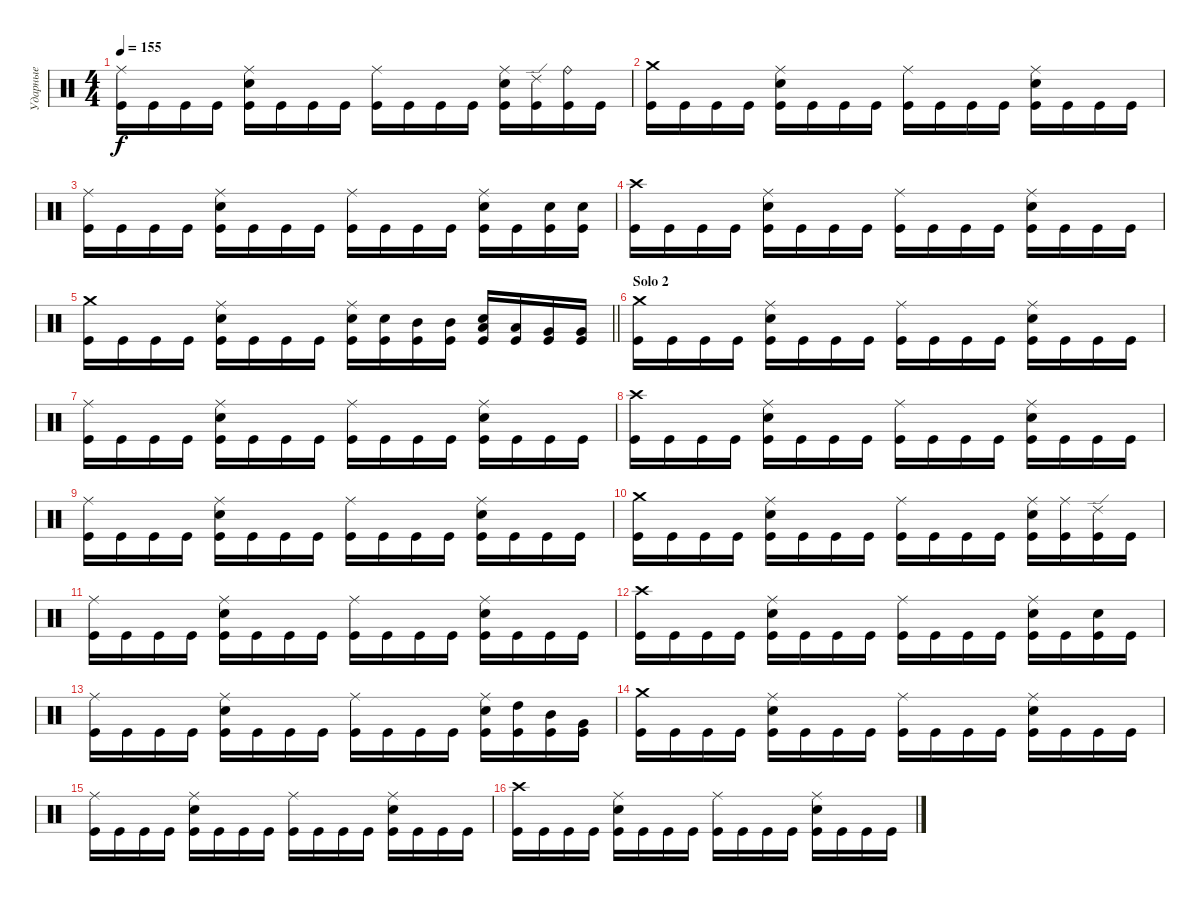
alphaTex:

\track ("Ударные" "Ударные") {instrument percussion}
\staff {score}
\articulation defaults
\ts (4 4)
\tempo 155
\clef neutral
\ks c
("Ride (middle)" "Kick (hit)").16{dy f} "Kick (hit)".16 "Kick (hit)".16 "Kick (hit)".16 ("Snare (hit) 2" "Ride (middle)" "Kick (hit)").16 "Kick (hit)".16 "Kick (hit)".16 "Kick (hit)".16 ("Ride (middle)" "Kick (hit)").16 "Kick (hit)".16 "Kick (hit)".16 "Kick (hit)".16 ("Snare (hit) 2" "Ride (middle)" "Kick (hit)").16 ("Ride (edge) 2" "Kick (hit)").16 ("Ride (bell)" "Kick (hit)").16 "Kick (hit)".16 |
("Crash medium (hit)" "Kick (hit)").16 "Kick (hit)".16 "Kick (hit)".16 "Kick (hit)".16 ("Snare (hit) 2" "Ride (middle)" "Kick (hit)").16 "Kick (hit)".16 "Kick (hit)".16 "Kick (hit)".16 ("Ride (middle)" "Kick (hit)").16 "Kick (hit)".16 "Kick (hit)".16 "Kick (hit)".16 ("Snare (hit) 2" "Ride (middle)" "Kick (hit)").16 "Kick (hit)".16 "Kick (hit)".16 "Kick (hit)".16 |
("Ride (middle)" "Kick (hit)").16 "Kick (hit)".16 "Kick (hit)".16 "Kick (hit)".16 ("Snare (hit) 2" "Ride (middle)" "Kick (hit)").16 "Kick (hit)".16 "Kick (hit)".16 "Kick (hit)".16 ("Ride (middle)" "Kick (hit)").16 "Kick (hit)".16 "Kick (hit)".16 "Kick (hit)".16 ("Snare (hit) 2" "Ride (middle)" "Kick (hit)").16 "Kick (hit)".16 ("Snare (hit) 2" "Kick (hit)").16 ("Snare (hit) 2" "Kick (hit)").16 |
("Crash high (hit)" "Kick (hit)").16 "Kick (hit)".16 "Kick (hit)".16 "Kick (hit)".16 ("Snare (hit) 2" "Ride (middle)" "Kick (hit)").16 "Kick (hit)".16 "Kick (hit)".16 "Kick (hit)".16 ("Ride (middle)" "Kick (hit)").16 "Kick (hit)".16 "Kick (hit)".16 "Kick (hit)".16 ("Snare (hit) 2" "Ride (middle)" "Kick (hit)").16 "Kick (hit)".16 "Kick (hit)".16 "Kick (hit)".16 |
\barLineRight lightlight
("Crash medium (hit)" "Kick (hit)").16 "Kick (hit)".16 "Kick (hit)".16 "Kick (hit)".16 ("Snare (hit) 2" "Ride (middle)" "Kick (hit)").16 "Kick (hit)".16 "Kick (hit)".16 "Kick (hit)".16 ("Ride (middle)" "Snare (hit) 2" "Kick (hit)").16 ("Snare (hit) 2" "Kick (hit)").16 ("Mid Tom (hit)" "Kick (hit)").16 ("Mid Tom (hit)" "Kick (hit)").16 ("Snare (hit) 2" "Low Tom (hit)" "Kick (hit)").16 ("Low Tom (hit)" "Kick (hit)").16 ("Very Low Tom (hit)" "Kick (hit)").16 ("Very Low Tom (hit)" "Kick (hit)").16 |
\section ("" "Solo 2")
("Crash medium (hit)" "Kick (hit)").16 "Kick (hit)".16 "Kick (hit)".16 "Kick (hit)".16 ("Snare (hit) 2" "Ride (middle)" "Kick (hit)").16 "Kick (hit)".16 "Kick (hit)".16 "Kick (hit)".16 ("Ride (middle)" "Kick (hit)").16 "Kick (hit)".16 "Kick (hit)".16 "Kick (hit)".16 ("Snare (hit) 2" "Ride (middle)" "Kick (hit)").16 "Kick (hit)".16 "Kick (hit)".16 "Kick (hit)".16 |
("Ride (middle)" "Kick (hit)").16 "Kick (hit)".16 "Kick (hit)".16 "Kick (hit)".16 ("Snare (hit) 2" "Ride (middle)" "Kick (hit)").16 "Kick (hit)".16 "Kick (hit)".16 "Kick (hit)".16 ("Ride (middle)" "Kick (hit)").16 "Kick (hit)".16 "Kick (hit)".16 "Kick (hit)".16 ("Snare (hit) 2" "Ride (middle)" "Kick (hit)").16 "Kick (hit)".16 "Kick (hit)".16 "Kick (hit)".16 |
("Crash high (hit)" "Kick (hit)").16 "Kick (hit)".16 "Kick (hit)".16 "Kick (hit)".16 ("Snare (hit) 2" "Ride (middle)" "Kick (hit)").16 "Kick (hit)".16 "Kick (hit)".16 "Kick (hit)".16 ("Ride (middle)" "Kick (hit)").16 "Kick (hit)".16 "Kick (hit)".16 "Kick (hit)".16 ("Snare (hit) 2" "Ride (middle)" "Kick (hit)").16 "Kick (hit)".16 "Kick (hit)".16 "Kick (hit)".16 |
("Ride (middle)" "Kick (hit)").16 "Kick (hit)".16 "Kick (hit)".16 "Kick (hit)".16 ("Snare (hit) 2" "Ride (middle)" "Kick (hit)").16 "Kick (hit)".16 "Kick (hit)".16 "Kick (hit)".16 ("Ride (middle)" "Kick (hit)").16 "Kick (hit)".16 "Kick (hit)".16 "Kick (hit)".16 ("Snare (hit) 2" "Ride (middle)" "Kick (hit)").16 "Kick (hit)".16 "Kick (hit)".16 "Kick (hit)".16 |
("Crash medium (hit)" "Kick (hit)").16 "Kick (hit)".16 "Kick (hit)".16 "Kick (hit)".16 ("Snare (hit) 2" "Ride (middle)" "Kick (hit)").16 "Kick (hit)".16 "Kick (hit)".16 "Kick (hit)".16 ("Ride (middle)" "Kick (hit)").16 "Kick (hit)".16 "Kick (hit)".16 "Kick (hit)".16 ("Snare (hit) 2" "Ride (middle)" "Kick (hit)").16 ("Ride (middle)" "Kick (hit)").16 ("Ride (edge) 2" "Kick (hit)").16 "Kick (hit)".16 |
("Ride (middle)" "Kick (hit)").16 "Kick (hit)".16 "Kick (hit)".16 "Kick (hit)".16 ("Snare (hit) 2" "Ride (middle)" "Kick (hit)").16 "Kick (hit)".16 "Kick (hit)".16 "Kick (hit)".16 ("Ride (middle)" "Kick (hit)").16 "Kick (hit)".16 "Kick (hit)".16 "Kick (hit)".16 ("Snare (hit) 2" "Ride (middle)" "Kick (hit)").16 "Kick (hit)".16 "Kick (hit)".16 "Kick (hit)".16 |
("Crash high (hit)" "Kick (hit)").16 "Kick (hit)".16 "Kick (hit)".16 "Kick (hit)".16 ("Snare (hit) 2" "Ride (middle)" "Kick (hit)").16 "Kick (hit)".16 "Kick (hit)".16 "Kick (hit)".16 ("Ride (middle)" "Kick (hit)").16 "Kick (hit)".16 "Kick (hit)".16 "Kick (hit)".16 ("Snare (hit) 2" "Ride (middle)" "Kick (hit)").16 "Kick (hit)".16 ("Snare (hit) 2" "Kick (hit)").16 "Kick (hit)".16 |
("Ride (middle)" "Kick (hit)").16 "Kick (hit)".16 "Kick (hit)".16 "Kick (hit)".16 ("Snare (hit) 2" "Ride (middle)" "Kick (hit)").16 "Kick (hit)".16 "Kick (hit)".16 "Kick (hit)".16 ("Ride (middle)" "Kick (hit)").16 "Kick (hit)".16 "Kick (hit)".16 "Kick (hit)".16 ("Snare (hit) 2" "Ride (middle)" "Kick (hit)").16 ("High Tom (hit)" "Kick (hit)").16 ("Mid Tom (hit)" "Kick (hit)").16 ("Very Low Tom (hit)" "Kick (hit)").16 |
("Crash medium (hit)" "Kick (hit)").16 "Kick (hit)".16 "Kick (hit)".16 "Kick (hit)".16 ("Snare (hit) 2" "Ride (middle)" "Kick (hit)").16 "Kick (hit)".16 "Kick (hit)".16 "Kick (hit)".16 ("Ride (middle)" "Kick (hit)").16 "Kick (hit)".16 "Kick (hit)".16 "Kick (hit)".16 ("Snare (hit) 2" "Ride (middle)" "Kick (hit)").16 "Kick (hit)".16 "Kick (hit)".16 "Kick (hit)".16 |
("Ride (middle)" "Kick (hit)").16 "Kick (hit)".16 "Kick (hit)".16 "Kick (hit)".16 ("Snare (hit) 2" "Ride (middle)" "Kick (hit)").16 "Kick (hit)".16 "Kick (hit)".16 "Kick (hit)".16 ("Ride (middle)" "Kick (hit)").16 "Kick (hit)".16 "Kick (hit)".16 "Kick (hit)".16 ("Snare (hit) 2" "Ride (middle)" "Kick (hit)").16 "Kick (hit)".16 "Kick (hit)".16 "Kick (hit)".16 |
("Crash high (hit)" "Kick (hit)").16 "Kick (hit)".16 "Kick (hit)".16 "Kick (hit)".16 ("Snare (hit) 2" "Ride (middle)" "Kick (hit)").16 "Kick (hit)".16 "Kick (hit)".16 "Kick (hit)".16 ("Ride (middle)" "Kick (hit)").16 "Kick (hit)".16 "Kick (hit)".16 "Kick (hit)".16 ("Snare (hit) 2" "Ride (middle)" "Kick (hit)").16 "Kick (hit)".16 "Kick (hit)".16 "Kick (hit)".16
